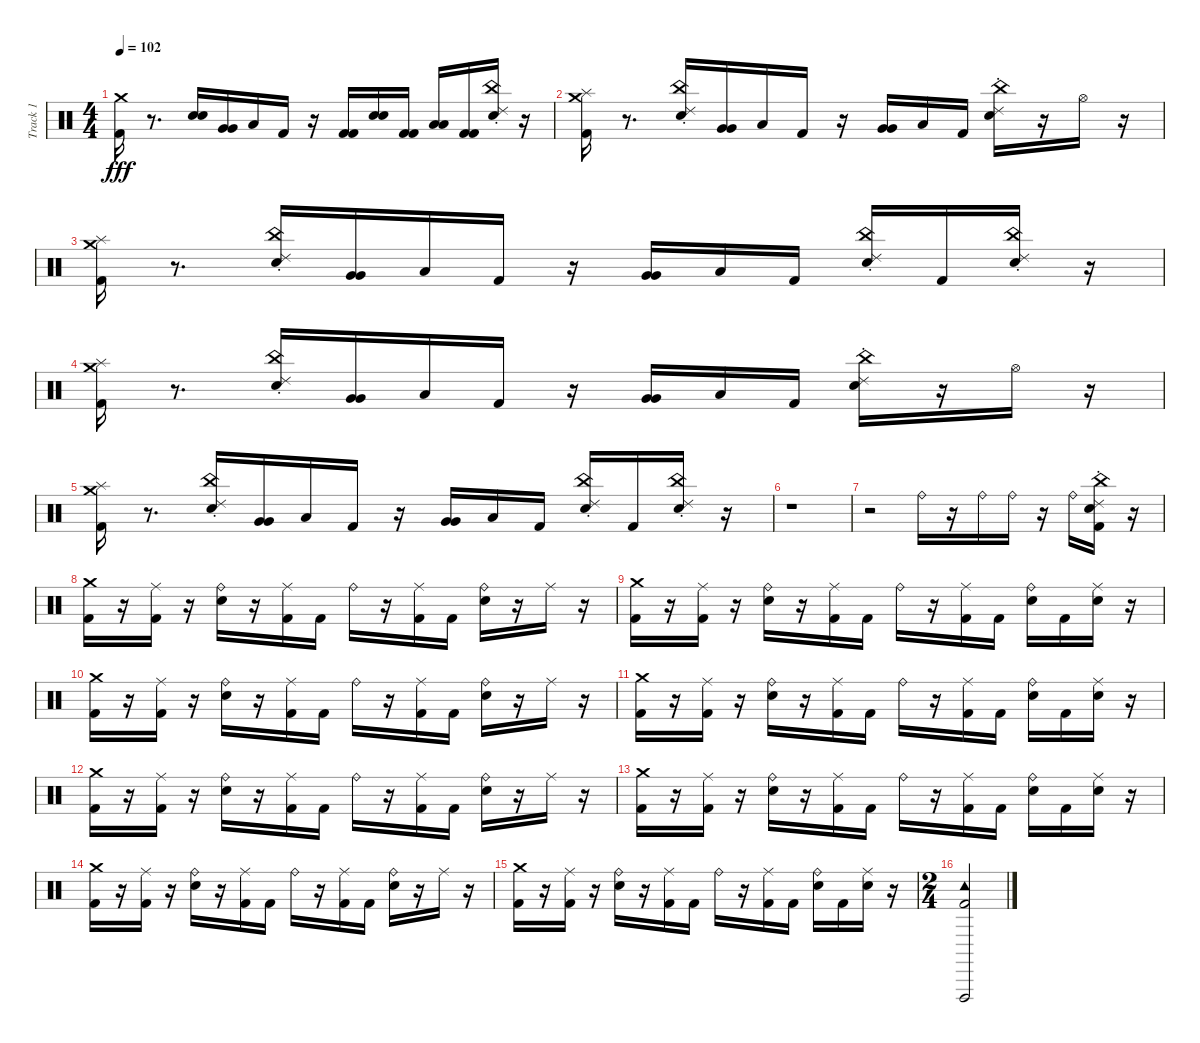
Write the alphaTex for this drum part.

\track ("Track 1" "Track 1") {instrument percussion}
\staff {score}
\articulation defaults
\ts (4 4)
\tempo 102
\clef neutral
\ks c
("Kick (hit) 2" "Crash medium (hit)").16{dy fff} r.8{d} ("Snare (hit) 2" "Snare (hit) 2").16 ("Very Low Tom (hit)" "Very Low Tom (hit)").16 "Low Floor Tom (hit)".16 "Kick (hit) 2".16 r.16 ("Kick (hit) 2" "Kick (hit) 2").16 ("Snare (hit) 2" "Snare (hit) 2").16 ("Kick (hit) 2" "Kick (hit) 2").16 ("Low Floor Tom (hit)" "Low Floor Tom (hit)").16 ("Kick (hit) 2" "Kick (hit) 2").16 ("China (hit)" "Ride (choke) 2" "Snare (hit) 2").16 r.16 |
("Kick (hit) 2" "Crash medium (hit)" "Splash (hit)").16 r.8{d} ("Snare (hit) 2" "China (hit)" "Ride (choke) 2").16 ("Very Low Tom (hit)" "Very Low Tom (hit)").16 "Low Floor Tom (hit)".16 "Kick (hit) 2".16 r.16 ("Very Low Tom (hit)" "Very Low Tom (hit)").16 "Low Floor Tom (hit)".16 "Kick (hit) 2".16 ("China (hit)" "Ride (choke) 2" "Snare (hit) 2").16 r.16 "Hi-Hat (open)".16 r.16 |
("Kick (hit) 2" "Crash medium (hit)" "Splash (hit)").16 r.8{d} ("China (hit)" "Ride (choke) 2" "Snare (hit) 2").16 ("Very Low Tom (hit)" "Very Low Tom (hit)").16 "Low Floor Tom (hit)".16 "Kick (hit) 2".16 r.16 ("Very Low Tom (hit)" "Very Low Tom (hit)").16 "Low Floor Tom (hit)".16 "Kick (hit) 2".16 ("China (hit)" "Ride (choke) 2" "Snare (hit) 2").16 "Kick (hit) 2".16 ("China (hit)" "Ride (choke) 2" "Snare (hit) 2").16 r.16 |
("Kick (hit) 2" "Crash medium (hit)" "Splash (hit)").16 r.8{d} ("China (hit)" "Ride (choke) 2" "Snare (hit) 2").16 ("Very Low Tom (hit)" "Very Low Tom (hit)").16 "Low Floor Tom (hit)".16 "Kick (hit) 2".16 r.16 ("Very Low Tom (hit)" "Very Low Tom (hit)").16 "Low Floor Tom (hit)".16 "Kick (hit) 2".16 ("China (hit)" "Ride (choke) 2" "Snare (hit) 2").16 r.16 "Hi-Hat (open)".16 r.16 |
("Kick (hit) 2" "Crash medium (hit)" "Splash (hit)").16 r.8{d} ("China (hit)" "Ride (choke) 2" "Snare (hit) 2").16 ("Very Low Tom (hit)" "Very Low Tom (hit)").16 "Low Floor Tom (hit)".16 "Kick (hit) 2".16 r.16 ("Very Low Tom (hit)" "Very Low Tom (hit)").16 "Low Floor Tom (hit)".16 "Kick (hit) 2".16 ("China (hit)" "Ride (choke) 2" "Snare (hit) 2").16 "Kick (hit) 2".16 ("China (hit)" "Ride (choke) 2" "Snare (hit) 2").16 r.16 |
r.1 |
r.2 "Ride (bell)".16 r.16 "Ride (bell)".16 "Ride (bell)".16 r.16 "Ride (bell)".16 ("Kick (hit) 2" "Ride (choke) 2" "China (hit)" "Snare (hit) 2").16 r.16 |
("Kick (hit) 2" "Crash medium (hit)").16 r.16 ("Kick (hit) 2" "Ride (middle)").16 r.16 ("Ride (bell)" "Snare (hit) 2").16 r.16 ("Ride (middle)" "Kick (hit) 2").16 "Kick (hit) 2".16 "Ride (bell)".16 r.16 ("Ride (middle)" "Kick (hit) 2").16 "Kick (hit) 2".16 ("Ride (bell)" "Snare (hit) 2").16 r.16 "Ride (middle)".16 r.16 |
("Kick (hit) 2" "Crash medium (hit)").16 r.16 ("Ride (middle)" "Kick (hit) 2").16 r.16 ("Ride (bell)" "Snare (hit) 2").16 r.16 ("Ride (middle)" "Kick (hit) 2").16 "Kick (hit) 2".16 "Ride (bell)".16 r.16 ("Ride (middle)" "Kick (hit) 2").16 "Kick (hit) 2".16 ("Ride (bell)" "Snare (hit) 2").16 "Kick (hit) 2".16 ("Ride (middle)" "Snare (hit) 2").16 r.16 |
("Kick (hit) 2" "Crash medium (hit)").16 r.16 ("Ride (middle)" "Kick (hit) 2").16 r.16 ("Ride (bell)" "Snare (hit) 2").16 r.16 ("Ride (middle)" "Kick (hit) 2").16 "Kick (hit) 2".16 "Ride (bell)".16 r.16 ("Ride (middle)" "Kick (hit) 2").16 "Kick (hit) 2".16 ("Ride (bell)" "Snare (hit) 2").16 r.16 "Ride (middle)".16 r.16 |
("Kick (hit) 2" "Crash medium (hit)").16 r.16 ("Ride (middle)" "Kick (hit) 2").16 r.16 ("Ride (bell)" "Snare (hit) 2").16 r.16 ("Ride (middle)" "Kick (hit) 2").16 "Kick (hit) 2".16 "Ride (bell)".16 r.16 ("Ride (middle)" "Kick (hit) 2").16 "Kick (hit) 2".16 ("Ride (bell)" "Snare (hit) 2").16 "Kick (hit) 2".16 ("Ride (middle)" "Snare (hit) 2").16 r.16 |
("Kick (hit) 2" "Crash medium (hit)").16 r.16 ("Kick (hit) 2" "Ride (middle)").16 r.16 ("Ride (bell)" "Snare (hit) 2").16 r.16 ("Ride (middle)" "Kick (hit) 2").16 "Kick (hit) 2".16 "Ride (bell)".16 r.16 ("Ride (middle)" "Kick (hit) 2").16 "Kick (hit) 2".16 ("Ride (bell)" "Snare (hit) 2").16 r.16 "Ride (middle)".16 r.16 |
("Kick (hit) 2" "Crash medium (hit)").16 r.16 ("Ride (middle)" "Kick (hit) 2").16 r.16 ("Ride (bell)" "Snare (hit) 2").16 r.16 ("Ride (middle)" "Kick (hit) 2").16 "Kick (hit) 2".16 "Ride (bell)".16 r.16 ("Ride (middle)" "Kick (hit) 2").16 "Kick (hit) 2".16 ("Ride (bell)" "Snare (hit) 2").16 "Kick (hit) 2".16 ("Ride (middle)" "Snare (hit) 2").16 r.16 |
("Kick (hit) 2" "Crash medium (hit)").16 r.16 ("Ride (middle)" "Kick (hit) 2").16 r.16 ("Ride (bell)" "Snare (hit) 2").16 r.16 ("Ride (middle)" "Kick (hit) 2").16 "Kick (hit) 2".16 "Ride (bell)".16 r.16 ("Ride (middle)" "Kick (hit) 2").16 "Kick (hit) 2".16 ("Ride (bell)" "Snare (hit) 2").16 r.16 "Ride (middle)".16 r.16 |
("Kick (hit) 2" "Crash medium (hit)").16 r.16 ("Ride (middle)" "Kick (hit) 2").16 r.16 ("Ride (bell)" "Snare (hit) 2").16 r.16 ("Ride (middle)" "Kick (hit) 2").16 "Kick (hit) 2".16 "Ride (bell)".16 r.16 ("Ride (middle)" "Kick (hit) 2").16 "Kick (hit) 2".16 ("Ride (bell)" "Snare (hit) 2").16 "Kick (hit) 2".16 ("Ride (middle)" "Snare (hit) 2").16 r.16 |
\ts (2 4)
("Kick (hit) 2" "Vibraslap (hit)" "Tambourine (hit)").2
